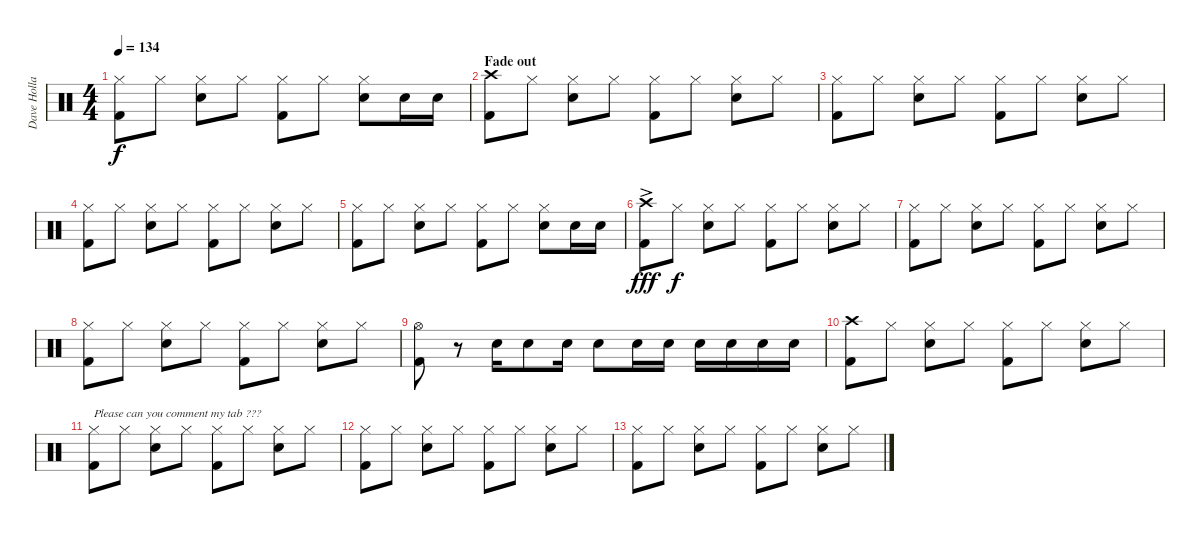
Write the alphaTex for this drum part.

\track ("Dave Holland" "Dave Holla") {instrument percussion}
\staff {score}
\articulation defaults
\ts (4 4)
\tempo 134
\clef neutral
\ks c
("Hi-Hat (closed)" "Kick (hit) 2").8{dy f} "Hi-Hat (closed)".8 ("Hi-Hat (closed)" "Snare (hit) 2").8 "Hi-Hat (closed)".8 ("Hi-Hat (closed)" "Kick (hit) 2").8 "Hi-Hat (closed)".8 ("Hi-Hat (closed)" "Snare (hit) 2").8 "Snare (hit) 2".16 "Snare (hit) 2".16 |
\section ("" "Fade out")
("Crash high (hit)" "Kick (hit) 2").8 "Hi-Hat (closed)".8 ("Hi-Hat (closed)" "Snare (hit) 2").8 "Hi-Hat (closed)".8 ("Hi-Hat (closed)" "Kick (hit) 2").8 "Hi-Hat (closed)".8 ("Hi-Hat (closed)" "Snare (hit) 2").8 "Hi-Hat (closed)".8 |
("Hi-Hat (closed)" "Kick (hit) 2").8 "Hi-Hat (closed)".8 ("Hi-Hat (closed)" "Snare (hit) 2").8 "Hi-Hat (closed)".8 ("Hi-Hat (closed)" "Kick (hit) 2").8 "Hi-Hat (closed)".8 ("Hi-Hat (closed)" "Snare (hit) 2").8 "Hi-Hat (closed)".8 |
("Hi-Hat (closed)" "Kick (hit) 2").8 "Hi-Hat (closed)".8 ("Hi-Hat (closed)" "Snare (hit) 2").8 "Hi-Hat (closed)".8 ("Hi-Hat (closed)" "Kick (hit) 2").8 "Hi-Hat (closed)".8 ("Hi-Hat (closed)" "Snare (hit) 2").8 "Hi-Hat (closed)".8 |
("Hi-Hat (closed)" "Kick (hit) 2").8 "Hi-Hat (closed)".8 ("Hi-Hat (closed)" "Snare (hit) 2").8 "Hi-Hat (closed)".8 ("Hi-Hat (closed)" "Kick (hit) 2").8 "Hi-Hat (closed)".8 ("Hi-Hat (closed)" "Snare (hit) 2").8 "Snare (hit) 2".16 "Snare (hit) 2".16 |
("Crash high (hit)"{ac} "Kick (hit) 2").8{dy fff} "Hi-Hat (closed)".8{dy f} ("Hi-Hat (closed)" "Snare (hit) 2").8 "Hi-Hat (closed)".8 ("Hi-Hat (closed)" "Kick (hit) 2").8 "Hi-Hat (closed)".8 ("Hi-Hat (closed)" "Snare (hit) 2").8 "Hi-Hat (closed)".8 |
("Hi-Hat (closed)" "Kick (hit) 2").8 "Hi-Hat (closed)".8 ("Hi-Hat (closed)" "Snare (hit) 2").8 "Hi-Hat (closed)".8 ("Hi-Hat (closed)" "Kick (hit) 2").8 "Hi-Hat (closed)".8 ("Hi-Hat (closed)" "Snare (hit) 2").8 "Hi-Hat (closed)".8 |
("Hi-Hat (closed)" "Kick (hit) 2").8 "Hi-Hat (closed)".8 ("Hi-Hat (closed)" "Snare (hit) 2").8 "Hi-Hat (closed)".8 ("Hi-Hat (closed)" "Kick (hit) 2").8 "Hi-Hat (closed)".8 ("Hi-Hat (closed)" "Snare (hit) 2").8 "Hi-Hat (closed)".8 |
("Hi-Hat (open)" "Kick (hit) 2").8 r.8 "Snare (hit) 2".16 "Snare (hit) 2".8 "Snare (hit) 2".16 "Snare (hit) 2".8 "Snare (hit) 2".16 "Snare (hit) 2".16 "Snare (hit) 2".16 "Snare (hit) 2".16 "Snare (hit) 2".16 "Snare (hit) 2".16 |
("Crash high (hit)" "Kick (hit) 2").8 "Hi-Hat (closed)".8 ("Hi-Hat (closed)" "Snare (hit) 2").8 "Hi-Hat (closed)".8 ("Hi-Hat (closed)" "Kick (hit) 2").8 "Hi-Hat (closed)".8 ("Hi-Hat (closed)" "Snare (hit) 2").8 "Hi-Hat (closed)".8 |
("Hi-Hat (closed)" "Kick (hit) 2").8{txt "Please can you comment my tab ???"} "Hi-Hat (closed)".8 ("Hi-Hat (closed)" "Snare (hit) 2").8 "Hi-Hat (closed)".8 ("Hi-Hat (closed)" "Kick (hit) 2").8 "Hi-Hat (closed)".8 ("Hi-Hat (closed)" "Snare (hit) 2").8 "Hi-Hat (closed)".8 |
("Hi-Hat (closed)" "Kick (hit) 2").8 "Hi-Hat (closed)".8 ("Hi-Hat (closed)" "Snare (hit) 2").8 "Hi-Hat (closed)".8 ("Hi-Hat (closed)" "Kick (hit) 2").8 "Hi-Hat (closed)".8 ("Hi-Hat (closed)" "Snare (hit) 2").8 "Hi-Hat (closed)".8 |
("Hi-Hat (closed)" "Kick (hit) 2").8 "Hi-Hat (closed)".8 ("Hi-Hat (closed)" "Snare (hit) 2").8 "Hi-Hat (closed)".8 ("Hi-Hat (closed)" "Kick (hit) 2").8 "Hi-Hat (closed)".8 ("Hi-Hat (closed)" "Snare (hit) 2").8 "Hi-Hat (closed)".8
